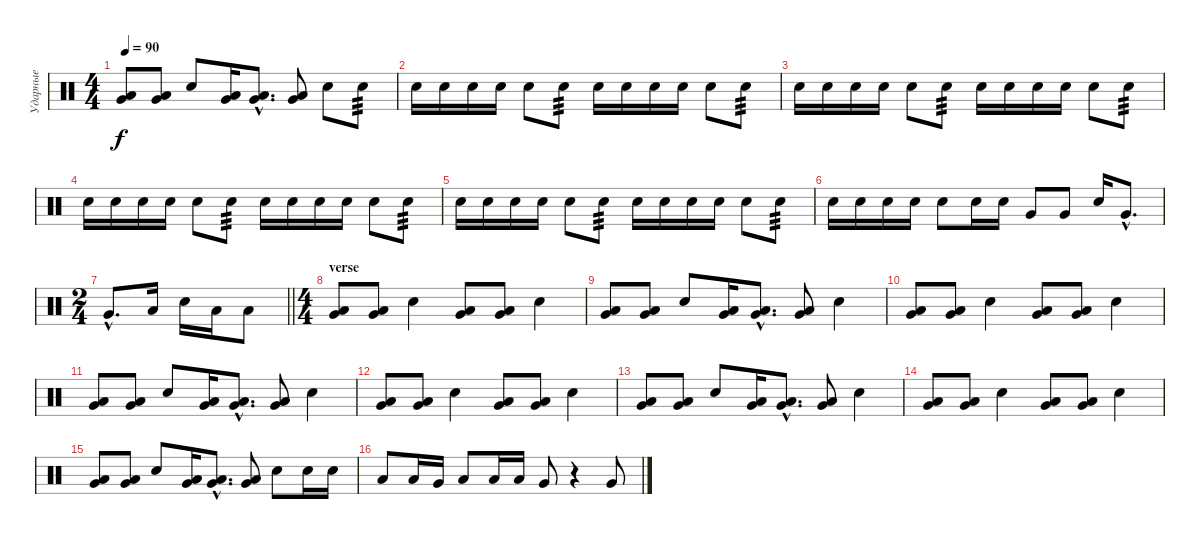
\track ("Ударные" "Ударные") {instrument percussion}
\staff {score}
\articulation defaults
\ts (4 4)
\tempo 90
\clef neutral
\ks c
("Low Floor Tom (hit)" "Very Low Tom (hit)").8{dy f} ("Low Floor Tom (hit)" "Very Low Tom (hit)").8 "Snare (hit) 2".8 ("Low Floor Tom (hit)" "Very Low Tom (hit)").16 ("Low Floor Tom (hit)"{hac} "Very Low Tom (hit)"{hac}).8{d} ("Low Floor Tom (hit)" "Very Low Tom (hit)").8 "Snare (hit) 2".8 "Snare (hit) 2".8{tp 3} |
"Snare (hit) 2".16 "Snare (hit) 2".16 "Snare (hit) 2".16 "Snare (hit) 2".16 "Snare (hit) 2".8 "Snare (hit) 2".8{tp 3} "Snare (hit) 2".16 "Snare (hit) 2".16 "Snare (hit) 2".16 "Snare (hit) 2".16 "Snare (hit) 2".8 "Snare (hit) 2".8{tp 3} |
"Snare (hit) 2".16 "Snare (hit) 2".16 "Snare (hit) 2".16 "Snare (hit) 2".16 "Snare (hit) 2".8 "Snare (hit) 2".8{tp 3} "Snare (hit) 2".16 "Snare (hit) 2".16 "Snare (hit) 2".16 "Snare (hit) 2".16 "Snare (hit) 2".8 "Snare (hit) 2".8{tp 3} |
"Snare (hit) 2".16 "Snare (hit) 2".16 "Snare (hit) 2".16 "Snare (hit) 2".16 "Snare (hit) 2".8 "Snare (hit) 2".8{tp 3} "Snare (hit) 2".16 "Snare (hit) 2".16 "Snare (hit) 2".16 "Snare (hit) 2".16 "Snare (hit) 2".8 "Snare (hit) 2".8{tp 3} |
"Snare (hit) 2".16 "Snare (hit) 2".16 "Snare (hit) 2".16 "Snare (hit) 2".16 "Snare (hit) 2".8 "Snare (hit) 2".8{tp 3} "Snare (hit) 2".16 "Snare (hit) 2".16 "Snare (hit) 2".16 "Snare (hit) 2".16 "Snare (hit) 2".8 "Snare (hit) 2".8{tp 3} |
"Snare (hit) 2".16 "Snare (hit) 2".16 "Snare (hit) 2".16 "Snare (hit) 2".16 "Snare (hit) 2".8 "Snare (hit) 2".16 "Snare (hit) 2".16 "Very Low Tom (hit)".8 "Very Low Tom (hit)".8 "Snare (hit) 2".16 "Very Low Tom (hit)"{hac}.8{d} |
\ts (2 4)
\barLineRight lightlight "Very Low Tom (hit)"{hac}.8{d} "Low Floor Tom (hit)".16 "Snare (hit) 2".16 "Low Floor Tom (hit)".16 "Low Floor Tom (hit)".8
|
\ts (4 4)
\section ("" "verse")
("Low Floor Tom (hit)" "Very Low Tom (hit)").8 ("Low Floor Tom (hit)" "Very Low Tom (hit)").8 "Snare (hit) 2".4 ("Low Floor Tom (hit)" "Very Low Tom (hit)").8 ("Low Floor Tom (hit)" "Very Low Tom (hit)").8 "Snare (hit) 2".4 |
("Low Floor Tom (hit)" "Very Low Tom (hit)").8 ("Low Floor Tom (hit)" "Very Low Tom (hit)").8 "Snare (hit) 2".8 ("Low Floor Tom (hit)" "Very Low Tom (hit)").16 ("Low Floor Tom (hit)"{hac} "Very Low Tom (hit)"{hac}).8{d} ("Low Floor Tom (hit)" "Very Low Tom (hit)").8 "Snare (hit) 2".4 |
("Low Floor Tom (hit)" "Very Low Tom (hit)").8 ("Low Floor Tom (hit)" "Very Low Tom (hit)").8 "Snare (hit) 2".4 ("Low Floor Tom (hit)" "Very Low Tom (hit)").8 ("Low Floor Tom (hit)" "Very Low Tom (hit)").8 "Snare (hit) 2".4 |
("Low Floor Tom (hit)" "Very Low Tom (hit)").8 ("Low Floor Tom (hit)" "Very Low Tom (hit)").8 "Snare (hit) 2".8 ("Low Floor Tom (hit)" "Very Low Tom (hit)").16 ("Low Floor Tom (hit)"{hac} "Very Low Tom (hit)"{hac}).8{d} ("Low Floor Tom (hit)" "Very Low Tom (hit)").8 "Snare (hit) 2".4 |
("Low Floor Tom (hit)" "Very Low Tom (hit)").8 ("Low Floor Tom (hit)" "Very Low Tom (hit)").8 "Snare (hit) 2".4 ("Low Floor Tom (hit)" "Very Low Tom (hit)").8 ("Low Floor Tom (hit)" "Very Low Tom (hit)").8 "Snare (hit) 2".4 |
("Low Floor Tom (hit)" "Very Low Tom (hit)").8 ("Low Floor Tom (hit)" "Very Low Tom (hit)").8 "Snare (hit) 2".8 ("Low Floor Tom (hit)" "Very Low Tom (hit)").16 ("Low Floor Tom (hit)"{hac} "Very Low Tom (hit)"{hac}).8{d} ("Low Floor Tom (hit)" "Very Low Tom (hit)").8 "Snare (hit) 2".4 |
("Low Floor Tom (hit)" "Very Low Tom (hit)").8 ("Low Floor Tom (hit)" "Very Low Tom (hit)").8 "Snare (hit) 2".4 ("Low Floor Tom (hit)" "Very Low Tom (hit)").8 ("Low Floor Tom (hit)" "Very Low Tom (hit)").8 "Snare (hit) 2".4 |
("Low Floor Tom (hit)" "Very Low Tom (hit)").8 ("Low Floor Tom (hit)" "Very Low Tom (hit)").8 "Snare (hit) 2".8 ("Low Floor Tom (hit)" "Very Low Tom (hit)").16 ("Low Floor Tom (hit)"{hac} "Very Low Tom (hit)"{hac}).8{d} ("Low Floor Tom (hit)" "Very Low Tom (hit)").8 "Snare (hit) 2".8 "Snare (hit) 2".16 "Snare (hit) 2".16 |
"Low Floor Tom (hit)".8 "Low Floor Tom (hit)".16 "Very Low Tom (hit)".16 "Low Floor Tom (hit)".8 "Low Floor Tom (hit)".16 "Low Floor Tom (hit)".16 "Very Low Tom (hit)".8 r.4 "Very Low Tom (hit)".8
